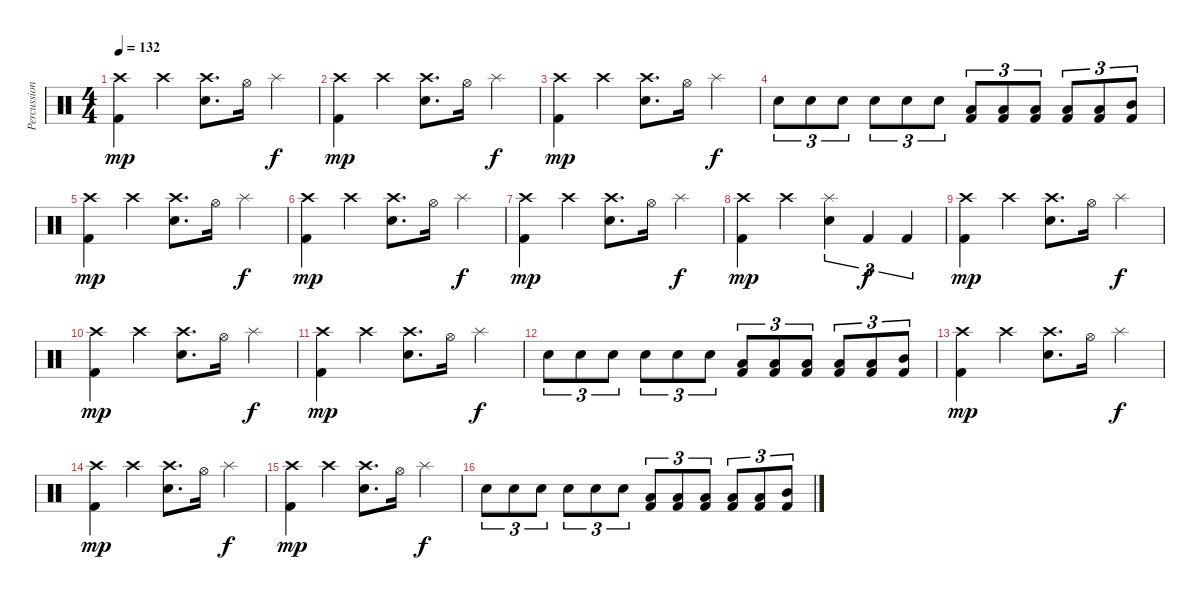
\track ("Percussion" "Percussion") {instrument percussion}
\staff {score}
\articulation defaults
\ts (4 4)
\tempo 132
\clef neutral
\ks c
("Crash high (hit)" "Kick (hit) 2").4{dy mp} "Crash high (hit)".4 ("Crash high (hit)" "Snare (hit) 2").8{d} "Hi-Hat (open)".16 "Splash (hit)".4{dy f} |
("Crash high (hit)" "Kick (hit) 2").4{dy mp} "Crash high (hit)".4 ("Crash high (hit)" "Snare (hit) 2").8{d} "Hi-Hat (open)".16 "Splash (hit)".4{dy f} |
("Crash high (hit)" "Kick (hit) 2").4{dy mp} "Crash high (hit)".4 ("Crash high (hit)" "Snare (hit) 2").8{d} "Hi-Hat (open)".16 "Splash (hit)".4{dy f} |
"Snare (hit) 2".8{tu (3 2)} "Snare (hit) 2".8{tu (3 2)} "Snare (hit) 2".8{tu (3 2)} "Snare (hit) 2".8{tu (3 2)} "Snare (hit) 2".8{tu (3 2)} "Snare (hit) 2".8{tu (3 2)} ("Low Tom (hit)" "Kick (hit) 2").8{tu (3 2)} ("Low Tom (hit)" "Kick (hit) 2").8{tu (3 2)} ("Low Tom (hit)" "Kick (hit) 2").8{tu (3 2)} ("Low Tom (hit)" "Kick (hit) 2").8{tu (3 2)} ("Low Tom (hit)" "Kick (hit) 2").8{tu (3 2)} ("Mid Tom (hit)" "Kick (hit) 2").8{tu (3 2)} |
("Crash high (hit)" "Kick (hit) 2").4{dy mp} "Crash high (hit)".4 ("Crash high (hit)" "Snare (hit) 2").8{d} "Hi-Hat (open)".16 "Splash (hit)".4{dy f} |
("Crash high (hit)" "Kick (hit) 2").4{dy mp} "Crash high (hit)".4 ("Crash high (hit)" "Snare (hit) 2").8{d} "Hi-Hat (open)".16 "Splash (hit)".4{dy f} |
("Crash high (hit)" "Kick (hit) 2").4{dy mp} "Crash high (hit)".4 ("Crash high (hit)" "Snare (hit) 2").8{d} "Hi-Hat (open)".16 "Splash (hit)".4{dy f} |
("Crash high (hit)" "Kick (hit) 2").4{dy mp} "Crash high (hit)".4 ("Splash (hit)" "Snare (hit) 2").4{tu (3 2)} "Kick (hit) 2".4{tu (3 2) dy f} "Kick (hit) 2".4{tu (3 2)} |
("Crash high (hit)" "Kick (hit) 2").4{dy mp volume 8} "Crash high (hit)".4 ("Crash high (hit)" "Snare (hit) 2").8{d} "Hi-Hat (open)".16 "Splash (hit)".4{dy f} |
("Crash high (hit)" "Kick (hit) 2").4{dy mp} "Crash high (hit)".4 ("Crash high (hit)" "Snare (hit) 2").8{d} "Hi-Hat (open)".16 "Splash (hit)".4{dy f} |
("Crash high (hit)" "Kick (hit) 2").4{dy mp} "Crash high (hit)".4 ("Crash high (hit)" "Snare (hit) 2").8{d} "Hi-Hat (open)".16 "Splash (hit)".4{dy f} |
"Snare (hit) 2".8{tu (3 2)} "Snare (hit) 2".8{tu (3 2)} "Snare (hit) 2".8{tu (3 2)} "Snare (hit) 2".8{tu (3 2)} "Snare (hit) 2".8{tu (3 2)} "Snare (hit) 2".8{tu (3 2)} ("Low Tom (hit)" "Kick (hit) 2").8{tu (3 2)} ("Low Tom (hit)" "Kick (hit) 2").8{tu (3 2)} ("Low Tom (hit)" "Kick (hit) 2").8{tu (3 2)} ("Low Tom (hit)" "Kick (hit) 2").8{tu (3 2)} ("Low Tom (hit)" "Kick (hit) 2").8{tu (3 2)} ("Mid Tom (hit)" "Kick (hit) 2").8{tu (3 2)} |
("Crash high (hit)" "Kick (hit) 2").4{dy mp volume 0} "Crash high (hit)".4 ("Crash high (hit)" "Snare (hit) 2").8{d} "Hi-Hat (open)".16 "Splash (hit)".4{dy f} |
("Crash high (hit)" "Kick (hit) 2").4{dy mp} "Crash high (hit)".4 ("Crash high (hit)" "Snare (hit) 2").8{d} "Hi-Hat (open)".16 "Splash (hit)".4{dy f} |
("Crash high (hit)" "Kick (hit) 2").4{dy mp} "Crash high (hit)".4 ("Crash high (hit)" "Snare (hit) 2").8{d} "Hi-Hat (open)".16 "Splash (hit)".4{dy f} |
"Snare (hit) 2".8{tu (3 2)} "Snare (hit) 2".8{tu (3 2)} "Snare (hit) 2".8{tu (3 2)} "Snare (hit) 2".8{tu (3 2)} "Snare (hit) 2".8{tu (3 2)} "Snare (hit) 2".8{tu (3 2)} ("Low Tom (hit)" "Kick (hit) 2").8{tu (3 2)} ("Low Tom (hit)" "Kick (hit) 2").8{tu (3 2)} ("Low Tom (hit)" "Kick (hit) 2").8{tu (3 2)} ("Low Tom (hit)" "Kick (hit) 2").8{tu (3 2)} ("Low Tom (hit)" "Kick (hit) 2").8{tu (3 2)} ("Mid Tom (hit)" "Kick (hit) 2").8{tu (3 2)}
